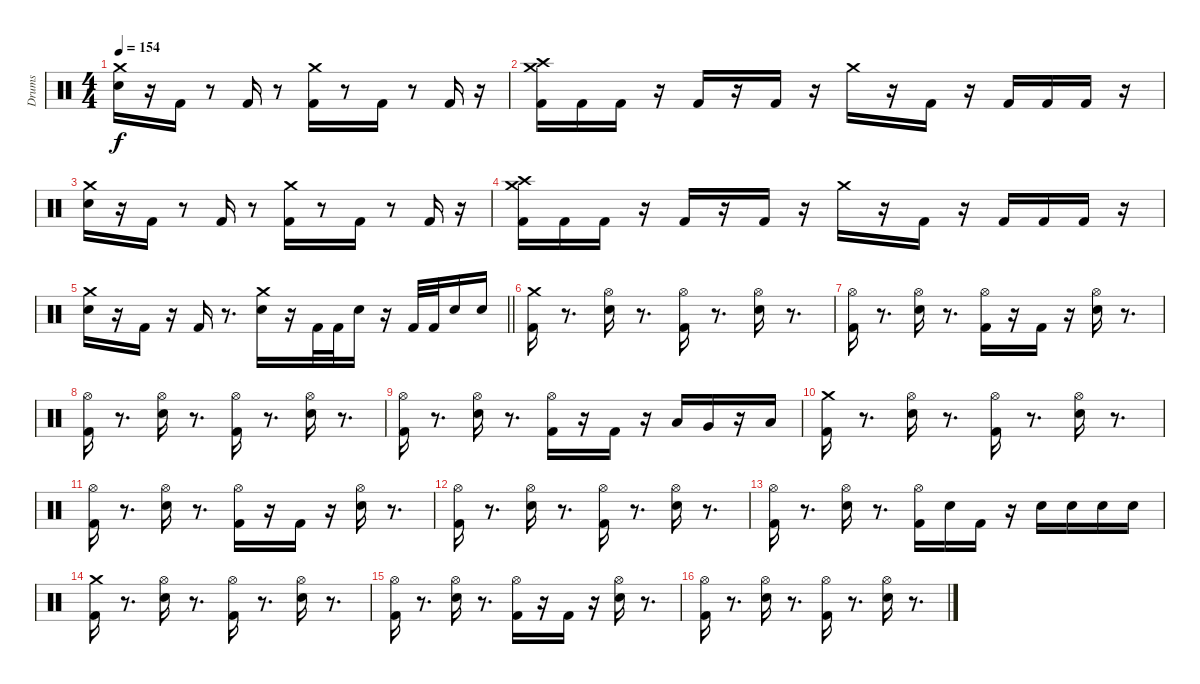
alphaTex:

\track ("Drums" "Drums") {instrument percussion}
\staff {score}
\articulation defaults
\ts (4 4)
\tempo 154
\clef neutral
\ks c
("Snare (hit) 2" "Crash medium (hit)").16{dy f} r.16 "Kick (hit) 2".16 r.8 "Kick (hit) 2".16 r.8 ("Kick (hit) 2" "Crash medium (hit)").16 r.8 "Kick (hit) 2".16 r.8 "Kick (hit) 2".16 r.16 |
("Kick (hit) 2" "Crash high (hit)" "Crash medium (hit)").16 "Kick (hit) 2".16 "Kick (hit) 2".16 r.16 "Kick (hit) 2".16 r.16 "Kick (hit) 2".16 r.16 "Crash medium (hit)".16 r.16 "Kick (hit) 2".16 r.16 "Kick (hit) 2".16 "Kick (hit) 2".16 "Kick (hit) 2".16 r.16 |
("Snare (hit) 2" "Crash medium (hit)").16 r.16 "Kick (hit) 2".16 r.8 "Kick (hit) 2".16 r.8 ("Kick (hit) 2" "Crash medium (hit)").16 r.8 "Kick (hit) 2".16 r.8 "Kick (hit) 2".16 r.16 |
("Kick (hit) 2" "Crash high (hit)" "Crash medium (hit)").16 "Kick (hit) 2".16 "Kick (hit) 2".16 r.16 "Kick (hit) 2".16 r.16 "Kick (hit) 2".16 r.16 "Crash medium (hit)".16 r.16 "Kick (hit) 2".16 r.16 "Kick (hit) 2".16 "Kick (hit) 2".16 "Kick (hit) 2".16 r.16 |
\barLineRight lightlight
("Snare (hit) 2" "Crash medium (hit)").16 r.16 "Kick (hit) 2".16 r.16 "Kick (hit) 2".16 r.8{d} ("Snare (hit) 2" "Crash medium (hit)").16 r.16 "Kick (hit) 2".32 "Kick (hit) 2".32 "Snare (hit) 2".16 r.16 "Kick (hit) 2".32 "Kick (hit) 2".32 "Snare (hit) 2".16 "Snare (hit) 2".16 |
\section ("" " ")
("Kick (hit) 2" "Crash medium (hit)").16 r.8{d} ("Snare (hit) 2" "Hi-Hat (open)").16 r.8{d} ("Kick (hit) 2" "Hi-Hat (open)").16 r.8{d} ("Snare (hit) 2" "Hi-Hat (open)").16 r.8{d} |
("Kick (hit) 2" "Hi-Hat (open)").16 r.8{d} ("Snare (hit) 2" "Hi-Hat (open)").16 r.8{d} ("Kick (hit) 2" "Hi-Hat (open)").16 r.16 "Kick (hit) 2".16 r.16 ("Snare (hit) 2" "Hi-Hat (open)").16 r.8{d} |
("Kick (hit) 2" "Hi-Hat (open)").16 r.8{d} ("Snare (hit) 2" "Hi-Hat (open)").16 r.8{d} ("Kick (hit) 2" "Hi-Hat (open)").16 r.8{d} ("Snare (hit) 2" "Hi-Hat (open)").16 r.8{d} |
("Kick (hit) 2" "Hi-Hat (open)").16 r.8{d} ("Snare (hit) 2" "Hi-Hat (open)").16 r.8{d} ("Kick (hit) 2" "Hi-Hat (open)").16 r.16 "Kick (hit) 2".16 r.16 "Low Tom (hit)".16 "Very Low Tom (hit)".16 r.16 "Low Floor Tom (hit)".16 |
("Kick (hit) 2" "Crash medium (hit)").16 r.8{d} ("Snare (hit) 2" "Hi-Hat (open)").16 r.8{d} ("Kick (hit) 2" "Hi-Hat (open)").16 r.8{d} ("Snare (hit) 2" "Hi-Hat (open)").16 r.8{d} |
("Kick (hit) 2" "Hi-Hat (open)").16 r.8{d} ("Snare (hit) 2" "Hi-Hat (open)").16 r.8{d} ("Kick (hit) 2" "Hi-Hat (open)").16 r.16 "Kick (hit) 2".16 r.16 ("Snare (hit) 2" "Hi-Hat (open)").16 r.8{d} |
("Kick (hit) 2" "Hi-Hat (open)").16 r.8{d} ("Snare (hit) 2" "Hi-Hat (open)").16 r.8{d} ("Kick (hit) 2" "Hi-Hat (open)").16 r.8{d} ("Snare (hit) 2" "Hi-Hat (open)").16 r.8{d} |
("Kick (hit) 2" "Hi-Hat (open)").16 r.8{d} ("Snare (hit) 2" "Hi-Hat (open)").16 r.8{d} ("Kick (hit) 2" "Hi-Hat (open)").16 "Snare (hit) 2".16 "Kick (hit) 2".16 r.16 "Snare (hit) 2".16 "Snare (hit) 2".16 "Snare (hit) 2".16 "Snare (hit) 2".16 |
("Kick (hit) 2" "Crash medium (hit)").16 r.8{d} ("Snare (hit) 2" "Hi-Hat (open)").16 r.8{d} ("Kick (hit) 2" "Hi-Hat (open)").16 r.8{d} ("Snare (hit) 2" "Hi-Hat (open)").16 r.8{d} |
("Kick (hit) 2" "Hi-Hat (open)").16 r.8{d} ("Snare (hit) 2" "Hi-Hat (open)").16 r.8{d} ("Kick (hit) 2" "Hi-Hat (open)").16 r.16 "Kick (hit) 2".16 r.16 ("Snare (hit) 2" "Hi-Hat (open)").16 r.8{d} |
("Kick (hit) 2" "Hi-Hat (open)").16 r.8{d} ("Snare (hit) 2" "Hi-Hat (open)").16 r.8{d} ("Kick (hit) 2" "Hi-Hat (open)").16 r.8{d} ("Snare (hit) 2" "Hi-Hat (open)").16 r.8{d}
